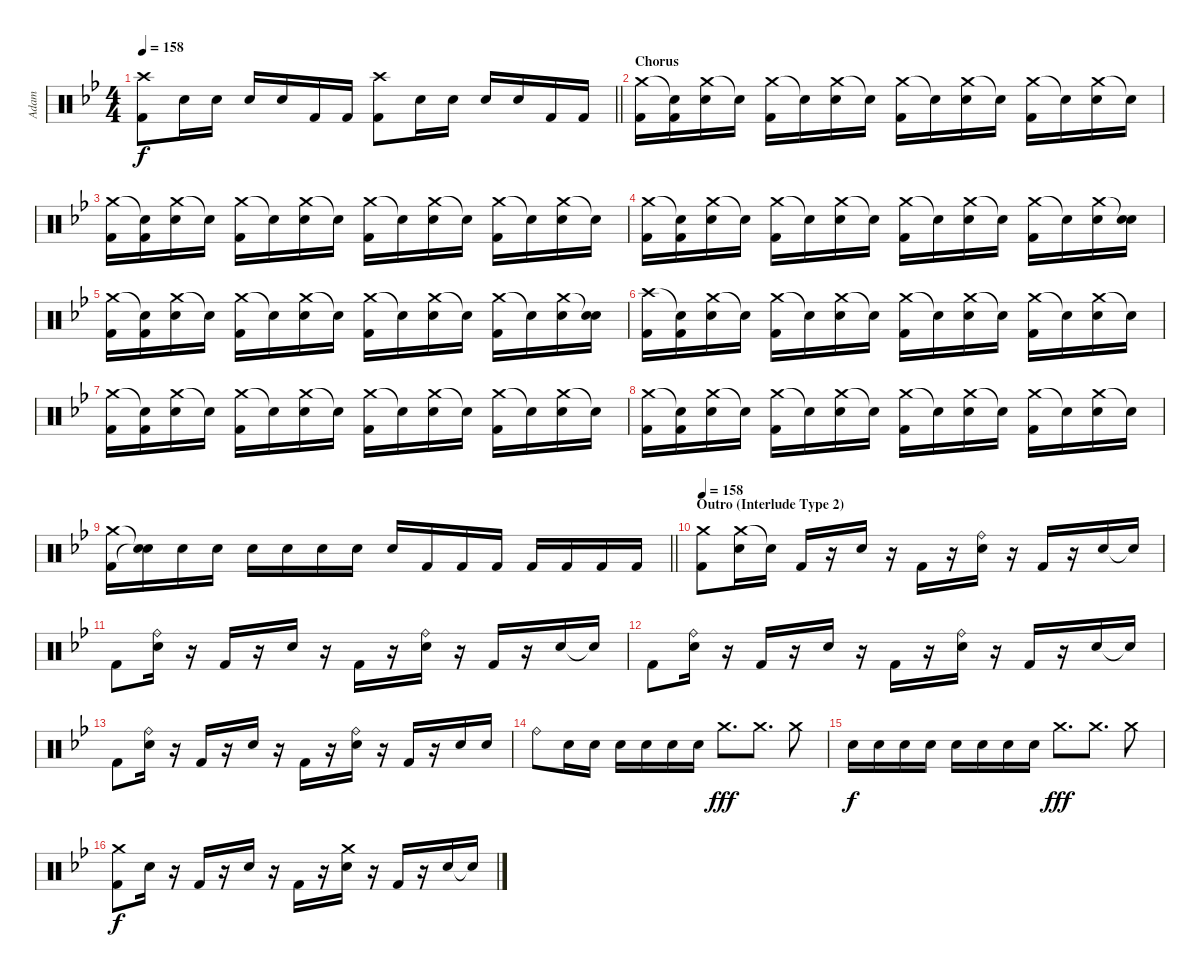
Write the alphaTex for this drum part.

\track ("Adam" "Adam") {instrument percussion}
\staff
\articulation defaults
\ts (4 4)
\tempo 158
\clef neutral
\barLineRight lightlight
\ks gminor
("Crash high (hit)" "Kick (hit) 2").8{dy f} "Snare (hit) 2".16 "Snare (hit) 2".16 "Snare (hit) 2".16 "Snare (hit) 2".16 "Kick (hit) 2".16 "Kick (hit) 2".16 ("Crash high (hit)" "Kick (hit) 2").8 "Snare (hit) 2".16 "Snare (hit) 2".16 "Snare (hit) 2".16 "Snare (hit) 2".16 "Kick (hit) 2".16 "Kick (hit) 2".16 |
\section ("" "Chorus")
("Crash medium (hit)" "Kick (hit) 2").16 ("Snare (hit)"{t} "Kick (hit) 2").16 ("Crash medium (hit)" "Snare (hit) 2").16 "Snare (hit)"{t}.16 ("Crash medium (hit)" "Kick (hit) 2").16 "Snare (hit)"{t}.16 ("Crash medium (hit)" "Snare (hit) 2").16 "Snare (hit)"{t}.16 ("Crash medium (hit)" "Kick (hit) 2").16 "Snare (hit)"{t}.16 ("Crash medium (hit)" "Snare (hit) 2").16 "Snare (hit)"{t}.16 ("Crash medium (hit)" "Kick (hit) 2").16 "Snare (hit)"{t}.16 ("Crash medium (hit)" "Snare (hit) 2").16 "Snare (hit)"{t}.16 |
("Crash medium (hit)" "Kick (hit) 2").16 ("Snare (hit)"{t} "Kick (hit) 2").16 ("Crash medium (hit)" "Snare (hit) 2").16 "Snare (hit)"{t}.16 ("Crash medium (hit)" "Kick (hit) 2").16 "Snare (hit)"{t}.16 ("Crash medium (hit)" "Snare (hit) 2").16 "Snare (hit)"{t}.16 ("Crash medium (hit)" "Kick (hit) 2").16 "Snare (hit)"{t}.16 ("Crash medium (hit)" "Snare (hit) 2").16 "Snare (hit)"{t}.16 ("Crash medium (hit)" "Kick (hit) 2").16 "Snare (hit)"{t}.16 ("Crash medium (hit)" "Snare (hit) 2").16 "Snare (hit)"{t}.16 |
("Crash medium (hit)" "Kick (hit) 2").16 ("Snare (hit)"{t} "Kick (hit) 2").16 ("Crash medium (hit)" "Snare (hit) 2").16 "Snare (hit)"{t}.16 ("Crash medium (hit)" "Kick (hit) 2").16 "Snare (hit)"{t}.16 ("Crash medium (hit)" "Snare (hit) 2").16 "Snare (hit)"{t}.16 ("Crash medium (hit)" "Kick (hit) 2").16 "Snare (hit)"{t}.16 ("Crash medium (hit)" "Snare (hit) 2").16 "Snare (hit)"{t}.16 ("Crash medium (hit)" "Kick (hit) 2").16 "Snare (hit)"{t}.16 ("Crash medium (hit)" "Snare (hit) 2").16 ("Snare (hit)"{t} "Snare (hit) 2").16 |
("Crash medium (hit)" "Kick (hit) 2").16 ("Snare (hit)"{t} "Kick (hit) 2").16 ("Crash medium (hit)" "Snare (hit) 2").16 "Snare (hit)"{t}.16 ("Crash medium (hit)" "Kick (hit) 2").16 "Snare (hit)"{t}.16 ("Crash medium (hit)" "Snare (hit) 2").16 "Snare (hit)"{t}.16 ("Crash medium (hit)" "Kick (hit) 2").16 "Snare (hit)"{t}.16 ("Crash medium (hit)" "Snare (hit) 2").16 "Snare (hit)"{t}.16 ("Crash medium (hit)" "Kick (hit) 2").16 "Snare (hit)"{t}.16 ("Crash medium (hit)" "Snare (hit) 2").16 ("Snare (hit)"{t} "Snare (hit) 2").16 |
("Crash high (hit)" "Kick (hit) 2").16 ("Snare (hit)"{t} "Kick (hit) 2").16 ("Crash medium (hit)" "Snare (hit) 2").16 "Snare (hit)"{t}.16 ("Crash medium (hit)" "Kick (hit) 2").16 "Snare (hit)"{t}.16 ("Crash medium (hit)" "Snare (hit) 2").16 "Snare (hit)"{t}.16 ("Crash medium (hit)" "Kick (hit) 2").16 "Snare (hit)"{t}.16 ("Crash medium (hit)" "Snare (hit) 2").16 "Snare (hit)"{t}.16 ("Crash medium (hit)" "Kick (hit) 2").16 "Snare (hit)"{t}.16 ("Crash medium (hit)" "Snare (hit) 2").16 "Snare (hit)"{t}.16 |
("Crash medium (hit)" "Kick (hit) 2").16 ("Snare (hit)"{t} "Kick (hit) 2").16 ("Crash medium (hit)" "Snare (hit) 2").16 "Snare (hit)"{t}.16 ("Crash medium (hit)" "Kick (hit) 2").16 "Snare (hit)"{t}.16 ("Crash medium (hit)" "Snare (hit) 2").16 "Snare (hit)"{t}.16 ("Crash medium (hit)" "Kick (hit) 2").16 "Snare (hit)"{t}.16 ("Crash medium (hit)" "Snare (hit) 2").16 "Snare (hit)"{t}.16 ("Crash medium (hit)" "Kick (hit) 2").16 "Snare (hit)"{t}.16 ("Crash medium (hit)" "Snare (hit) 2").16 "Snare (hit)"{t}.16 |
("Crash medium (hit)" "Kick (hit) 2").16 ("Snare (hit)"{t} "Kick (hit) 2").16 ("Crash medium (hit)" "Snare (hit) 2").16 "Snare (hit)"{t}.16 ("Crash medium (hit)" "Kick (hit) 2").16 "Snare (hit)"{t}.16 ("Crash medium (hit)" "Snare (hit) 2").16 "Snare (hit)"{t}.16 ("Crash medium (hit)" "Kick (hit) 2").16 "Snare (hit)"{t}.16 ("Crash medium (hit)" "Snare (hit) 2").16 "Snare (hit)"{t}.16 ("Crash medium (hit)" "Kick (hit) 2").16 "Snare (hit)"{t}.16 ("Crash medium (hit)" "Snare (hit) 2").16 "Snare (hit)"{t}.16 |
\barLineRight lightlight
("Crash medium (hit)" "Kick (hit) 2").16 ("Snare (hit)"{t} "Snare (hit)"{t}).16 "Snare (hit) 2".16 "Snare (hit) 2".16 "Snare (hit) 2".16 "Snare (hit) 2".16 "Snare (hit) 2".16 "Snare (hit) 2".16 "Snare (hit) 2".16 "Kick (hit) 2".16 "Kick (hit) 2".16 "Kick (hit) 2".16 "Kick (hit) 2".16 "Kick (hit) 2".16 "Kick (hit) 2".16 "Kick (hit) 2".16 |
\section ("" "Outro (Interlude Type 2)")
\tempo 158
("Crash medium (hit)" "Kick (hit) 2").8 ("Crash medium (hit)" "Snare (hit) 2").16 "Snare (hit)"{t}.16 "Kick (hit) 2".16 r.16 "Snare (hit) 2".16 r.16 "Kick (hit) 2".16 r.16 ("Ride (bell)" "Snare (hit) 2").16 r.16 "Kick (hit) 2".16 r.16 "Snare (hit) 2".16 "Snare (hit)"{t}.16 |
"Kick (hit) 2".8 ("Ride (bell)" "Snare (hit) 2").16 r.16 "Kick (hit) 2".16 r.16 "Snare (hit) 2".16 r.16 "Kick (hit) 2".16 r.16 ("Ride (bell)" "Snare (hit) 2").16 r.16 "Kick (hit) 2".16 r.16 "Snare (hit) 2".16 "Snare (hit)"{t}.16 |
"Kick (hit) 2".8 ("Ride (bell)" "Snare (hit) 2").16 r.16 "Kick (hit) 2".16 r.16 "Snare (hit) 2".16 r.16 "Kick (hit) 2".16 r.16 ("Ride (bell)" "Snare (hit) 2").16 r.16 "Kick (hit) 2".16 r.16 "Snare (hit) 2".16 "Snare (hit)"{t}.16 |
"Kick (hit) 2".8 ("Ride (bell)" "Snare (hit) 2").16 r.16 "Kick (hit) 2".16 r.16 "Snare (hit) 2".16 r.16 "Kick (hit) 2".16 r.16 ("Ride (bell)" "Snare (hit) 2").16 r.16 "Kick (hit) 2".16 r.16 "Snare (hit) 2".16 "Snare (hit) 2".16 |
"Ride (bell)".8 "Snare (hit) 2".16 "Snare (hit) 2".16 "Snare (hit) 2".16 "Snare (hit) 2".16 "Snare (hit) 2".16 "Snare (hit) 2".16 "Crash medium (hit)".8{d dy fff} "Crash medium (hit)".8{d} "Crash medium (hit)".8 |
"Snare (hit) 2".16{dy f} "Snare (hit) 2".16 "Snare (hit) 2".16 "Snare (hit) 2".16 "Snare (hit) 2".16 "Snare (hit) 2".16 "Snare (hit) 2".16 "Snare (hit) 2".16 "Crash medium (hit)".8{d dy fff} "Crash medium (hit)".8{d} "Crash medium (hit)".8 |
("Crash medium (hit)" "Kick (hit) 2").8{dy f} "Snare (hit) 2".16 r.16 "Kick (hit) 2".16 r.16 "Snare (hit) 2".16 r.16 "Kick (hit) 2".16 r.16 ("Crash medium (hit)" "Snare (hit) 2").16 r.16 "Kick (hit) 2".16 r.16 "Snare (hit) 2".16 "Snare (hit)"{t}.16
